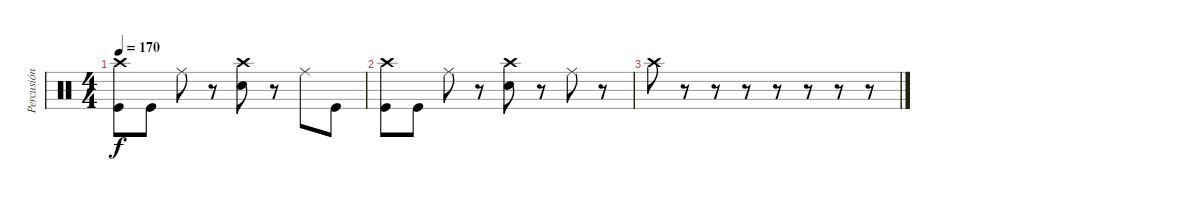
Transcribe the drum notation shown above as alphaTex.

\track ("Percusión  Gabriela" "Percusión ") {instrument percussion}
\staff {score}
\articulation defaults
\ts (4 4)
\tempo 170
\clef neutral
\ks c
("Crash high (hit)" "Kick (hit)").8{dy f} "Kick (hit)".8 "Ride (middle)".8 r.8 ("Snare (hit) 2" "Crash high (hit)").8 r.8 "Ride (middle)".8 "Kick (hit)".8 |
("Crash high (hit)" "Kick (hit)").8 "Kick (hit)".8 "Ride (middle)".8 r.8 ("Snare (hit) 2" "Crash high (hit)").8 r.8 "Ride (middle)".8 r.8 |
"Crash high (hit)".8 r.8 r.8 r.8 r.8 r.8 r.8 r.8
